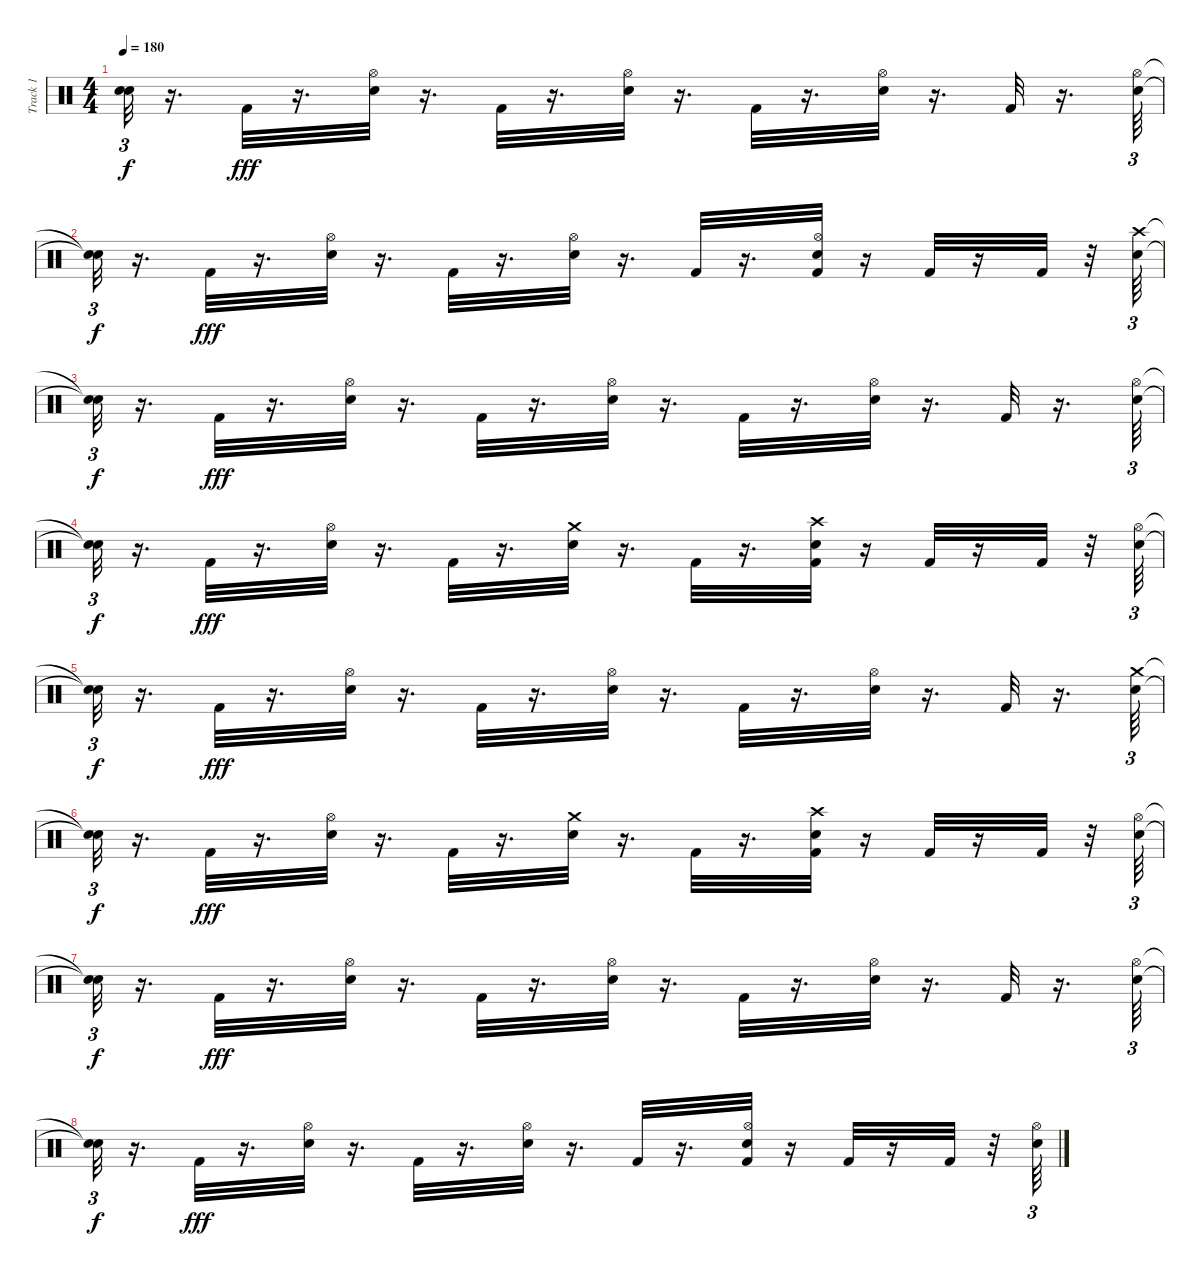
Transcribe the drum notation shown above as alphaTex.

\track ("Track 1" "Track 1") {mute instrument percussion}
\staff {score}
\articulation defaults
\ts (4 4)
\tempo 180
\clef neutral
\ks c
("Snare (hit)"{t} "Snare (hit)"{t}).32{tu (3 2) dy f} r.16{d} "Kick (hit) 2".32{dy fff} r.16{d} ("Hi-Hat (open)" "Electric Snare (hit)").32 r.16{d} "Kick (hit) 2".32 r.16{d} ("Electric Snare (hit)" "Hi-Hat (open)").32 r.16{d} "Kick (hit) 2".32 r.16{d} ("Electric Snare (hit)" "Hi-Hat (open)").32 r.16{d} "Kick (hit) 2".32 r.16{d} ("Electric Snare (hit)" "Hi-Hat (open)").64{tu (3 2)} |
("Snare (hit)"{t} "Snare (hit)"{t}).32{tu (3 2) dy f} r.16{d} "Kick (hit) 2".32{dy fff} r.16{d} ("Hi-Hat (open)" "Electric Snare (hit)").32 r.16{d} "Kick (hit) 2".32 r.16{d} ("Electric Snare (hit)" "Hi-Hat (open)").32 r.16{d} "Kick (hit) 2".32 r.16{d} ("Electric Snare (hit)" "Hi-Hat (open)" "Kick (hit) 2").32 r.16 "Kick (hit) 2".32 r.16 "Kick (hit) 2".32 r.32 ("Electric Snare (hit)" "Crash high (hit)").64{tu (3 2)} |
("Snare (hit)"{t} "Snare (hit)"{t}).32{tu (3 2) dy f} r.16{d} "Kick (hit) 2".32{dy fff} r.16{d} ("Hi-Hat (open)" "Electric Snare (hit)").32 r.16{d} "Kick (hit) 2".32 r.16{d} ("Hi-Hat (open)" "Electric Snare (hit)").32 r.16{d} "Kick (hit) 2".32 r.16{d} ("Electric Snare (hit)" "Hi-Hat (open)").32 r.16{d} "Kick (hit) 2".32 r.16{d} ("Electric Snare (hit)" "Hi-Hat (open)").64{tu (3 2)} |
("Snare (hit)"{t} "Snare (hit)"{t}).32{tu (3 2) dy f} r.16{d} "Kick (hit) 2".32{dy fff} r.16{d} ("Electric Snare (hit)" "Hi-Hat (open)").32 r.16{d} "Kick (hit) 2".32 r.16{d} ("Electric Snare (hit)" "Crash medium (hit)").32 r.16{d} "Kick (hit) 2".32 r.16{d} ("Crash high (hit)" "Electric Snare (hit)" "Kick (hit) 2").32 r.16 "Kick (hit) 2".32 r.16 "Kick (hit) 2".32 r.32 ("Hi-Hat (open)" "Electric Snare (hit)").64{tu (3 2)} |
("Snare (hit)"{t} "Snare (hit)"{t}).32{tu (3 2) dy f} r.16{d} "Kick (hit) 2".32{dy fff} r.16{d} ("Electric Snare (hit)" "Hi-Hat (open)").32 r.16{d} "Kick (hit) 2".32 r.16{d} ("Electric Snare (hit)" "Hi-Hat (open)").32 r.16{d} "Kick (hit) 2".32 r.16{d} ("Electric Snare (hit)" "Hi-Hat (open)").32 r.16{d} "Kick (hit) 2".32 r.16{d} ("Electric Snare (hit)" "Crash medium (hit)").64{tu (3 2)} |
("Snare (hit)"{t} "Snare (hit)"{t}).32{tu (3 2) dy f} r.16{d} "Kick (hit) 2".32{dy fff} r.16{d} ("Hi-Hat (open)" "Electric Snare (hit)").32 r.16{d} "Kick (hit) 2".32 r.16{d} ("Electric Snare (hit)" "Crash medium (hit)").32 r.16{d} "Kick (hit) 2".32 r.16{d} ("Crash high (hit)" "Electric Snare (hit)" "Kick (hit) 2").32 r.16 "Kick (hit) 2".32 r.16 "Kick (hit) 2".32 r.32 ("Electric Snare (hit)" "Hi-Hat (open)").64{tu (3 2)} |
("Snare (hit)"{t} "Snare (hit)"{t}).32{tu (3 2) dy f} r.16{d} "Kick (hit) 2".32{dy fff} r.16{d} ("Electric Snare (hit)" "Hi-Hat (open)").32 r.16{d} "Kick (hit) 2".32 r.16{d} ("Electric Snare (hit)" "Hi-Hat (open)").32 r.16{d} "Kick (hit) 2".32 r.16{d} ("Electric Snare (hit)" "Hi-Hat (open)").32 r.16{d} "Kick (hit) 2".32 r.16{d} ("Electric Snare (hit)" "Hi-Hat (open)").64{tu (3 2)} |
("Snare (hit)"{t} "Snare (hit)"{t}).32{tu (3 2) dy f} r.16{d} "Kick (hit) 2".32{dy fff} r.16{d} ("Hi-Hat (open)" "Electric Snare (hit)").32 r.16{d} "Kick (hit) 2".32 r.16{d} ("Electric Snare (hit)" "Hi-Hat (open)").32 r.16{d} "Kick (hit) 2".32 r.16{d} ("Hi-Hat (open)" "Electric Snare (hit)" "Kick (hit) 2").32 r.16 "Kick (hit) 2".32 r.16 "Kick (hit) 2".32 r.32 ("Electric Snare (hit)" "Hi-Hat (open)").64{tu (3 2)}
